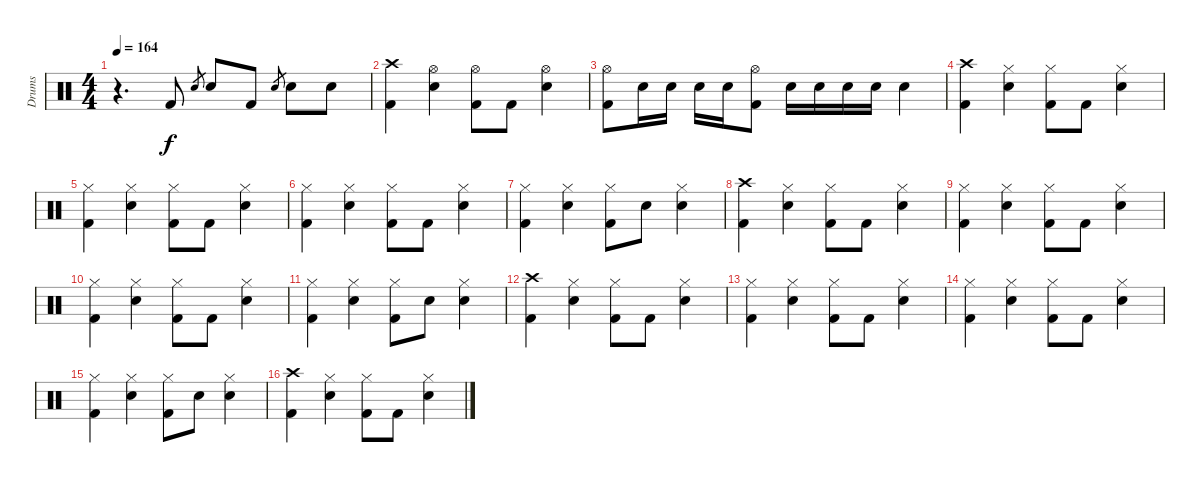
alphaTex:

\track ("Drums" "Drums") {instrument percussion}
\staff {score}
\articulation defaults
\ts (4 4)
\tempo 164
\clef neutral
\ks c
r.4{d dy f} "Kick (hit) 2".8 "Snare (hit) 2".8{gr} "Snare (hit) 2".8 "Kick (hit) 2".8 "Snare (hit) 2".8{gr} "Snare (hit) 2".8 "Snare (hit) 2".8 |
("Kick (hit) 2" "Crash high (hit)").4 ("Snare (hit) 2" "Hi-Hat (open)").4 ("Kick (hit) 2" "Hi-Hat (open)").8 "Kick (hit) 2".8 ("Snare (hit) 2" "Hi-Hat (open)").4 |
("Kick (hit) 2" "Hi-Hat (open)").8 "Snare (hit) 2".16 "Snare (hit) 2".16 "Snare (hit) 2".16 "Snare (hit) 2".16 ("Kick (hit) 2" "Hi-Hat (open)").8 "Snare (hit) 2".16 "Snare (hit) 2".16 "Snare (hit) 2".16 "Snare (hit) 2".16 "Snare (hit) 2".4 |
("Kick (hit) 2" "Crash high (hit)").4 ("Snare (hit) 2" "Hi-Hat (closed)").4 ("Kick (hit) 2" "Hi-Hat (closed)").8 "Kick (hit) 2".8 ("Snare (hit) 2" "Hi-Hat (closed)").4 |
("Kick (hit) 2" "Hi-Hat (closed)").4 ("Snare (hit) 2" "Hi-Hat (closed)").4 ("Kick (hit) 2" "Hi-Hat (closed)").8 "Kick (hit) 2".8 ("Snare (hit) 2" "Hi-Hat (closed)").4 |
("Kick (hit) 2" "Hi-Hat (closed)").4 ("Snare (hit) 2" "Hi-Hat (closed)").4 ("Kick (hit) 2" "Hi-Hat (closed)").8 "Kick (hit) 2".8 ("Snare (hit) 2" "Hi-Hat (closed)").4 |
("Kick (hit) 2" "Hi-Hat (closed)").4 ("Snare (hit) 2" "Hi-Hat (closed)").4 ("Kick (hit) 2" "Hi-Hat (closed)").8 "Snare (hit) 2".8 ("Snare (hit) 2" "Hi-Hat (closed)").4 |
("Kick (hit) 2" "Crash high (hit)").4 ("Snare (hit) 2" "Hi-Hat (closed)").4 ("Kick (hit) 2" "Hi-Hat (closed)").8 "Kick (hit) 2".8 ("Snare (hit) 2" "Hi-Hat (closed)").4 |
("Kick (hit) 2" "Hi-Hat (closed)").4 ("Snare (hit) 2" "Hi-Hat (closed)").4 ("Kick (hit) 2" "Hi-Hat (closed)").8 "Kick (hit) 2".8 ("Snare (hit) 2" "Hi-Hat (closed)").4 |
("Kick (hit) 2" "Hi-Hat (closed)").4 ("Snare (hit) 2" "Hi-Hat (closed)").4 ("Kick (hit) 2" "Hi-Hat (closed)").8 "Kick (hit) 2".8 ("Snare (hit) 2" "Hi-Hat (closed)").4 |
("Kick (hit) 2" "Hi-Hat (closed)").4 ("Snare (hit) 2" "Hi-Hat (closed)").4 ("Kick (hit) 2" "Hi-Hat (closed)").8 "Snare (hit) 2".8 ("Snare (hit) 2" "Hi-Hat (closed)").4 |
("Kick (hit) 2" "Crash high (hit)").4 ("Snare (hit) 2" "Hi-Hat (closed)").4 ("Kick (hit) 2" "Hi-Hat (closed)").8 "Kick (hit) 2".8 ("Snare (hit) 2" "Hi-Hat (closed)").4 |
("Kick (hit) 2" "Hi-Hat (closed)").4 ("Snare (hit) 2" "Hi-Hat (closed)").4 ("Kick (hit) 2" "Hi-Hat (closed)").8 "Kick (hit) 2".8 ("Snare (hit) 2" "Hi-Hat (closed)").4 |
("Kick (hit) 2" "Hi-Hat (closed)").4 ("Snare (hit) 2" "Hi-Hat (closed)").4 ("Kick (hit) 2" "Hi-Hat (closed)").8 "Kick (hit) 2".8 ("Snare (hit) 2" "Hi-Hat (closed)").4 |
("Kick (hit) 2" "Hi-Hat (closed)").4 ("Snare (hit) 2" "Hi-Hat (closed)").4 ("Kick (hit) 2" "Hi-Hat (closed)").8 "Snare (hit) 2".8 ("Snare (hit) 2" "Hi-Hat (closed)").4 |
("Kick (hit) 2" "Crash high (hit)").4 ("Snare (hit) 2" "Hi-Hat (closed)").4 ("Kick (hit) 2" "Hi-Hat (closed)").8 "Kick (hit) 2".8 ("Snare (hit) 2" "Hi-Hat (closed)").4
